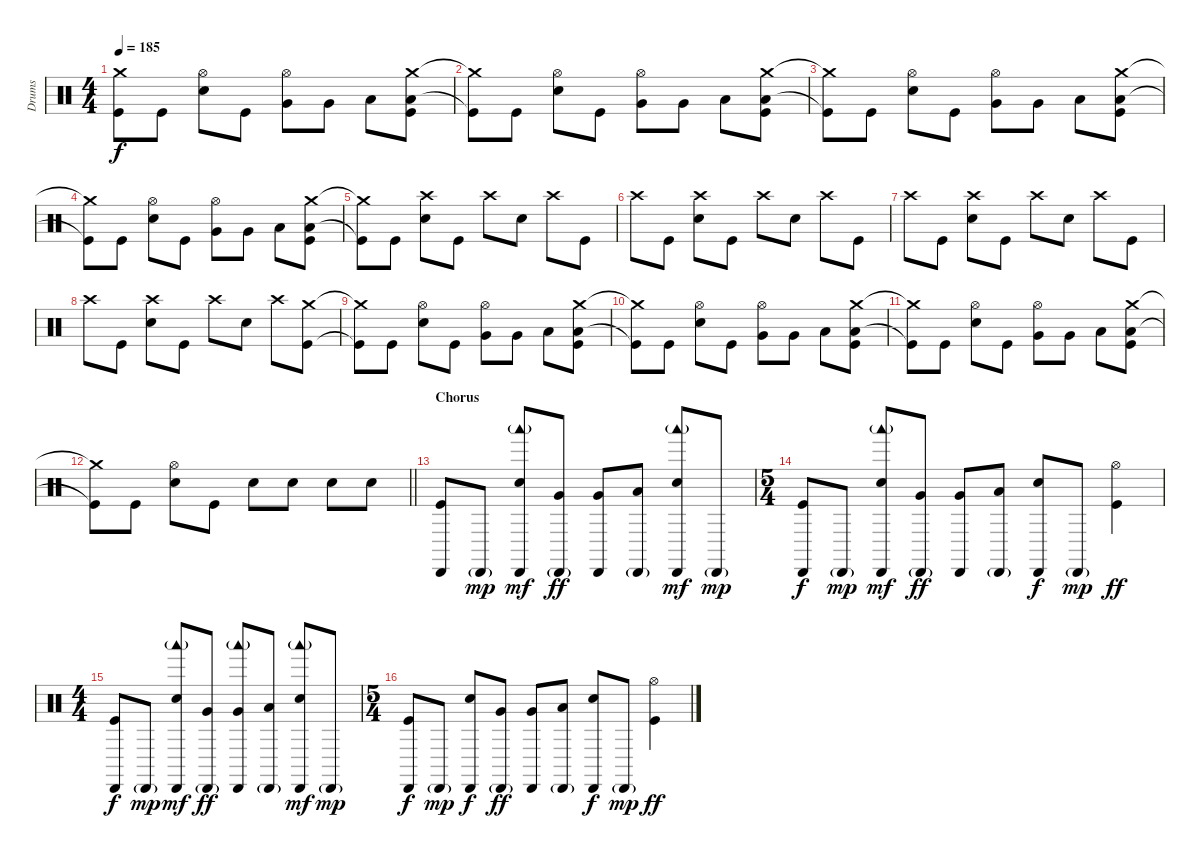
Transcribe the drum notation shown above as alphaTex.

\track ("Drums" "Drums") {instrument percussion}
\staff {score}
\articulation defaults
\ts (4 4)
\tempo 185
\clef neutral
\ks c
("Crash medium (hit)"{t} "Kick (hit)"{t}).8{dy f} "Kick (hit)".8 ("Hi-Hat (open)" "Snare (hit) 2").8 "Kick (hit)".8 ("Hi-Hat (open)" "Very Low Tom (hit)").8 "Very Low Tom (hit)".8 "Low Floor Tom (hit)".8 ("Crash medium (hit)" "Low Floor Tom (hit)" "Kick (hit)").8 |
("Crash medium (hit)"{t} "Kick (hit)"{t}).8 "Kick (hit)".8 ("Hi-Hat (open)" "Snare (hit) 2").8 "Kick (hit)".8 ("Hi-Hat (open)" "Very Low Tom (hit)").8 "Very Low Tom (hit)".8 "Low Floor Tom (hit)".8 ("Crash medium (hit)" "Low Floor Tom (hit)" "Kick (hit)").8 |
("Crash medium (hit)"{t} "Kick (hit)"{t}).8 "Kick (hit)".8 ("Hi-Hat (open)" "Snare (hit) 2").8 "Kick (hit)".8 ("Hi-Hat (open)" "Very Low Tom (hit)").8 "Very Low Tom (hit)".8 "Low Floor Tom (hit)".8 ("Crash medium (hit)" "Low Floor Tom (hit)" "Kick (hit)").8 |
("Crash medium (hit)"{t} "Kick (hit)"{t}).8 "Kick (hit)".8 ("Hi-Hat (open)" "Snare (hit) 2").8 "Kick (hit)".8 ("Hi-Hat (open)" "Very Low Tom (hit)").8 "Very Low Tom (hit)".8 "Low Floor Tom (hit)".8 ("Crash medium (hit)" "Low Floor Tom (hit)" "Kick (hit)").8 |
("Crash medium (hit)"{t} "Kick (hit)"{t}).8 "Kick (hit)".8 ("Crash high (hit)" "Snare (hit) 2").8 "Kick (hit)".8 "Crash high (hit)".8 "Snare (hit) 2".8 "Crash high (hit)".8 "Kick (hit)".8 |
"Crash high (hit)".8 "Kick (hit)".8 ("Crash high (hit)" "Snare (hit) 2").8 "Kick (hit)".8 "Crash high (hit)".8 "Snare (hit) 2".8 "Crash high (hit)".8 "Kick (hit)".8 |
"Crash high (hit)".8 "Kick (hit)".8 ("Crash high (hit)" "Snare (hit) 2").8 "Kick (hit)".8 "Crash high (hit)".8 "Snare (hit) 2".8 "Crash high (hit)".8 "Kick (hit)".8 |
"Crash high (hit)".8 "Kick (hit)".8 ("Crash high (hit)" "Snare (hit) 2").8 "Kick (hit)".8 "Crash high (hit)".8 "Snare (hit) 2".8 "Crash high (hit)".8 ("Crash medium (hit)" "Kick (hit)").8 |
("Crash medium (hit)"{t} "Kick (hit)"{t}).8 "Kick (hit)".8 ("Hi-Hat (open)" "Snare (hit) 2").8 "Kick (hit)".8 ("Hi-Hat (open)" "Very Low Tom (hit)").8 "Very Low Tom (hit)".8 "Low Floor Tom (hit)".8 ("Crash medium (hit)" "Low Floor Tom (hit)" "Kick (hit)").8 |
("Crash medium (hit)"{t} "Kick (hit)"{t}).8 "Kick (hit)".8 ("Hi-Hat (open)" "Snare (hit) 2").8 "Kick (hit)".8 ("Hi-Hat (open)" "Very Low Tom (hit)").8 "Very Low Tom (hit)".8 "Low Floor Tom (hit)".8 ("Crash medium (hit)" "Low Floor Tom (hit)" "Kick (hit)").8 |
("Crash medium (hit)"{t} "Kick (hit)"{t}).8 "Kick (hit)".8 ("Hi-Hat (open)" "Snare (hit) 2").8 "Kick (hit)".8 ("Hi-Hat (open)" "Very Low Tom (hit)").8 "Very Low Tom (hit)".8 "Low Floor Tom (hit)".8 ("Crash medium (hit)" "Low Floor Tom (hit)" "Kick (hit)").8 |
\barLineRight lightlight
("Crash medium (hit)"{t} "Kick (hit)"{t}).8 "Kick (hit)".8 ("Hi-Hat (open)" "Snare (hit) 2").8 "Kick (hit)".8 "Snare (hit) 2".8 "Snare (hit) 2".8 "Snare (hit) 2".8 "Snare (hit) 2".8 |
\section ("" "Chorus")
("Cabasa (hit)" "Kick (hit)").8 "Cabasa (hit)"{g}.8{dy mp} ("Woodblock low (hit)"{g} "Cabasa (hit)" "Snare (hit) 2").8{dy mf} ("Cabasa (hit)"{g} "Very Low Tom (hit)").8{dy ff} ("Cabasa (hit)" "Very Low Tom (hit)").8 ("Cabasa (hit)"{g} "Low Floor Tom (hit)").8 ("Woodblock low (hit)"{g} "Cabasa (hit)" "Snare (hit) 2").8{dy mf} "Cabasa (hit)"{g}.8{dy mp} |
\ts (5 4)
("Cabasa (hit)" "Kick (hit)").8{dy f} "Cabasa (hit)"{g}.8{dy mp} ("Woodblock low (hit)"{g} "Cabasa (hit)" "Snare (hit) 2").8{dy mf} ("Cabasa (hit)"{g} "Very Low Tom (hit)").8{dy ff} ("Cabasa (hit)" "Very Low Tom (hit)").8 ("Cabasa (hit)"{g} "Low Floor Tom (hit)").8 ("Cabasa (hit)" "Snare (hit) 2").8{dy f} "Cabasa (hit)"{g}.8{dy mp} ("Hi-Hat (open)" "Kick (hit)").4{dy ff} |
\ts (4 4)
("Cabasa (hit)" "Kick (hit)").8{dy f} "Cabasa (hit)"{g}.8{dy mp} ("Woodblock low (hit)"{g} "Cabasa (hit)" "Snare (hit) 2").8{dy mf} ("Cabasa (hit)"{g} "Very Low Tom (hit)").8{dy ff} ("Woodblock low (hit)"{g} "Cabasa (hit)" "Very Low Tom (hit)").8 ("Cabasa (hit)"{g} "Low Floor Tom (hit)").8 ("Woodblock low (hit)"{g} "Cabasa (hit)" "Snare (hit) 2").8{dy mf} "Cabasa (hit)"{g}.8{dy mp} |
\ts (5 4)
("Cabasa (hit)" "Kick (hit)").8{dy f} "Cabasa (hit)"{g}.8{dy mp} ("Cabasa (hit)" "Snare (hit) 2").8{dy f} ("Cabasa (hit)"{g} "Very Low Tom (hit)").8{dy ff} ("Cabasa (hit)" "Very Low Tom (hit)").8 ("Cabasa (hit)"{g} "Low Floor Tom (hit)").8 ("Cabasa (hit)" "Snare (hit) 2").8{dy f} "Cabasa (hit)"{g}.8{dy mp} ("Hi-Hat (open)" "Kick (hit)").4{dy ff}
